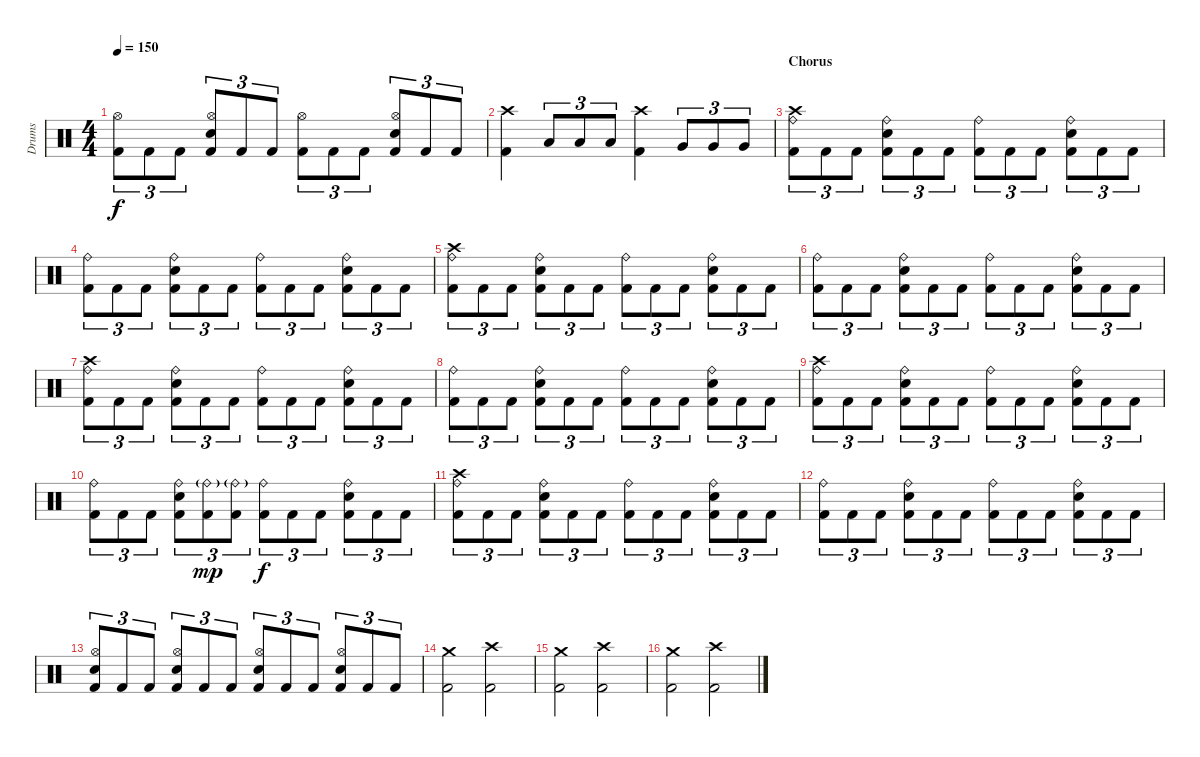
\track ("Drums" "Drums") {instrument percussion}
\staff {score}
\articulation defaults
\ts (4 4)
\tempo 150
\clef neutral
\ks c
("Kick (hit) 2" "Hi-Hat (open)").8{tu (3 2) dy f} "Kick (hit) 2".8{tu (3 2)} "Kick (hit) 2".8{tu (3 2)} ("Kick (hit) 2" "Electric Snare (hit)" "Hi-Hat (open)").8{tu (3 2)} "Kick (hit) 2".8{tu (3 2)} "Kick (hit) 2".8{tu (3 2)} ("Kick (hit) 2" "Hi-Hat (open)").8{tu (3 2)} "Kick (hit) 2".8{tu (3 2)} "Kick (hit) 2".8{tu (3 2)} ("Kick (hit) 2" "Electric Snare (hit)" "Hi-Hat (open)").8{tu (3 2)} "Kick (hit) 2".8{tu (3 2)} "Kick (hit) 2".8{tu (3 2)} |
("Kick (hit) 2" "Crash high (hit)").4 "Low Tom (hit)".8{tu (3 2)} "Low Tom (hit)".8{tu (3 2)} "Low Tom (hit)".8{tu (3 2)} ("Kick (hit) 2" "Crash high (hit)").4 "Very Low Tom (hit)".8{tu (3 2)} "Very Low Tom (hit)".8{tu (3 2)} "Very Low Tom (hit)".8{tu (3 2)} |
\section ("" "Chorus")
("Kick (hit) 2" "Crash high (hit)" "Ride (bell)").8{tu (3 2)} "Kick (hit) 2".8{tu (3 2)} "Kick (hit) 2".8{tu (3 2)} ("Kick (hit) 2" "Electric Snare (hit)" "Ride (bell)").8{tu (3 2)} "Kick (hit) 2".8{tu (3 2)} "Kick (hit) 2".8{tu (3 2)} ("Kick (hit) 2" "Ride (bell)").8{tu (3 2)} "Kick (hit) 2".8{tu (3 2)} "Kick (hit) 2".8{tu (3 2)} ("Kick (hit) 2" "Electric Snare (hit)" "Ride (bell)").8{tu (3 2)} "Kick (hit) 2".8{tu (3 2)} "Kick (hit) 2".8{tu (3 2)} |
("Kick (hit) 2" "Ride (bell)").8{tu (3 2)} "Kick (hit) 2".8{tu (3 2)} "Kick (hit) 2".8{tu (3 2)} ("Kick (hit) 2" "Electric Snare (hit)" "Ride (bell)").8{tu (3 2)} "Kick (hit) 2".8{tu (3 2)} "Kick (hit) 2".8{tu (3 2)} ("Kick (hit) 2" "Ride (bell)").8{tu (3 2)} "Kick (hit) 2".8{tu (3 2)} "Kick (hit) 2".8{tu (3 2)} ("Kick (hit) 2" "Electric Snare (hit)" "Ride (bell)").8{tu (3 2)} "Kick (hit) 2".8{tu (3 2)} "Kick (hit) 2".8{tu (3 2)} |
("Kick (hit) 2" "Crash high (hit)" "Ride (bell)").8{tu (3 2)} "Kick (hit) 2".8{tu (3 2)} "Kick (hit) 2".8{tu (3 2)} ("Kick (hit) 2" "Electric Snare (hit)" "Ride (bell)").8{tu (3 2)} "Kick (hit) 2".8{tu (3 2)} "Kick (hit) 2".8{tu (3 2)} ("Kick (hit) 2" "Ride (bell)").8{tu (3 2)} "Kick (hit) 2".8{tu (3 2)} "Kick (hit) 2".8{tu (3 2)} ("Kick (hit) 2" "Electric Snare (hit)" "Ride (bell)").8{tu (3 2)} "Kick (hit) 2".8{tu (3 2)} "Kick (hit) 2".8{tu (3 2)} |
("Kick (hit) 2" "Ride (bell)").8{tu (3 2)} "Kick (hit) 2".8{tu (3 2)} "Kick (hit) 2".8{tu (3 2)} ("Kick (hit) 2" "Electric Snare (hit)" "Ride (bell)").8{tu (3 2)} "Kick (hit) 2".8{tu (3 2)} "Kick (hit) 2".8{tu (3 2)} ("Kick (hit) 2" "Ride (bell)").8{tu (3 2)} "Kick (hit) 2".8{tu (3 2)} "Kick (hit) 2".8{tu (3 2)} ("Kick (hit) 2" "Electric Snare (hit)" "Ride (bell)").8{tu (3 2)} "Kick (hit) 2".8{tu (3 2)} "Kick (hit) 2".8{tu (3 2)} |
("Kick (hit) 2" "Crash high (hit)" "Ride (bell)").8{tu (3 2)} "Kick (hit) 2".8{tu (3 2)} "Kick (hit) 2".8{tu (3 2)} ("Kick (hit) 2" "Electric Snare (hit)" "Ride (bell)").8{tu (3 2)} "Kick (hit) 2".8{tu (3 2)} "Kick (hit) 2".8{tu (3 2)} ("Kick (hit) 2" "Ride (bell)").8{tu (3 2)} "Kick (hit) 2".8{tu (3 2)} "Kick (hit) 2".8{tu (3 2)} ("Kick (hit) 2" "Electric Snare (hit)" "Ride (bell)").8{tu (3 2)} "Kick (hit) 2".8{tu (3 2)} "Kick (hit) 2".8{tu (3 2)} |
("Kick (hit) 2" "Ride (bell)").8{tu (3 2)} "Kick (hit) 2".8{tu (3 2)} "Kick (hit) 2".8{tu (3 2)} ("Kick (hit) 2" "Electric Snare (hit)" "Ride (bell)").8{tu (3 2)} "Kick (hit) 2".8{tu (3 2)} "Kick (hit) 2".8{tu (3 2)} ("Kick (hit) 2" "Ride (bell)").8{tu (3 2)} "Kick (hit) 2".8{tu (3 2)} "Kick (hit) 2".8{tu (3 2)} ("Kick (hit) 2" "Electric Snare (hit)" "Ride (bell)").8{tu (3 2)} "Kick (hit) 2".8{tu (3 2)} "Kick (hit) 2".8{tu (3 2)} |
("Kick (hit) 2" "Crash high (hit)" "Ride (bell)").8{tu (3 2)} "Kick (hit) 2".8{tu (3 2)} "Kick (hit) 2".8{tu (3 2)} ("Kick (hit) 2" "Electric Snare (hit)" "Ride (bell)").8{tu (3 2)} "Kick (hit) 2".8{tu (3 2)} "Kick (hit) 2".8{tu (3 2)} ("Kick (hit) 2" "Ride (bell)").8{tu (3 2)} "Kick (hit) 2".8{tu (3 2)} "Kick (hit) 2".8{tu (3 2)} ("Kick (hit) 2" "Electric Snare (hit)" "Ride (bell)").8{tu (3 2)} "Kick (hit) 2".8{tu (3 2)} "Kick (hit) 2".8{tu (3 2)} |
("Kick (hit) 2" "Ride (bell)").8{tu (3 2)} "Kick (hit) 2".8{tu (3 2)} "Kick (hit) 2".8{tu (3 2)} ("Kick (hit) 2" "Electric Snare (hit)" "Ride (bell)").8{tu (3 2)} ("Kick (hit) 2" "Ride (bell)"{g}).8{tu (3 2) dy mp} ("Kick (hit) 2" "Ride (bell)"{g}).8{tu (3 2)} ("Kick (hit) 2" "Ride (bell)").8{tu (3 2) dy f} "Kick (hit) 2".8{tu (3 2)} "Kick (hit) 2".8{tu (3 2)} ("Kick (hit) 2" "Electric Snare (hit)" "Ride (bell)").8{tu (3 2)} "Kick (hit) 2".8{tu (3 2)} "Kick (hit) 2".8{tu (3 2)} |
("Kick (hit) 2" "Crash high (hit)" "Ride (bell)").8{tu (3 2)} "Kick (hit) 2".8{tu (3 2)} "Kick (hit) 2".8{tu (3 2)} ("Kick (hit) 2" "Electric Snare (hit)" "Ride (bell)").8{tu (3 2)} "Kick (hit) 2".8{tu (3 2)} "Kick (hit) 2".8{tu (3 2)} ("Kick (hit) 2" "Ride (bell)").8{tu (3 2)} "Kick (hit) 2".8{tu (3 2)} "Kick (hit) 2".8{tu (3 2)} ("Kick (hit) 2" "Electric Snare (hit)" "Ride (bell)").8{tu (3 2)} "Kick (hit) 2".8{tu (3 2)} "Kick (hit) 2".8{tu (3 2)} |
("Kick (hit) 2" "Ride (bell)").8{tu (3 2)} "Kick (hit) 2".8{tu (3 2)} "Kick (hit) 2".8{tu (3 2)} ("Kick (hit) 2" "Electric Snare (hit)" "Ride (bell)").8{tu (3 2)} "Kick (hit) 2".8{tu (3 2)} "Kick (hit) 2".8{tu (3 2)} ("Kick (hit) 2" "Ride (bell)").8{tu (3 2)} "Kick (hit) 2".8{tu (3 2)} "Kick (hit) 2".8{tu (3 2)} ("Kick (hit) 2" "Electric Snare (hit)" "Ride (bell)").8{tu (3 2)} "Kick (hit) 2".8{tu (3 2)} "Kick (hit) 2".8{tu (3 2)} |
("Kick (hit) 2" "Electric Snare (hit)" "Hi-Hat (open)").8{tu (3 2)} "Kick (hit) 2".8{tu (3 2)} "Kick (hit) 2".8{tu (3 2)} ("Kick (hit) 2" "Electric Snare (hit)" "Hi-Hat (open)").8{tu (3 2)} "Kick (hit) 2".8{tu (3 2)} "Kick (hit) 2".8{tu (3 2)} ("Kick (hit) 2" "Electric Snare (hit)" "Hi-Hat (open)").8{tu (3 2)} "Kick (hit) 2".8{tu (3 2)} "Kick (hit) 2".8{tu (3 2)} ("Kick (hit) 2" "Electric Snare (hit)" "Hi-Hat (open)").8{tu (3 2)} "Kick (hit) 2".8{tu (3 2)} "Kick (hit) 2".8{tu (3 2)} |
("Kick (hit) 2" "Crash medium (hit)").2 ("Kick (hit) 2" "Crash high (hit)").2 |
("Kick (hit) 2" "Crash medium (hit)").2 ("Kick (hit) 2" "Crash high (hit)").2 |
("Kick (hit) 2" "Crash medium (hit)").2 ("Kick (hit) 2" "Crash high (hit)").2
